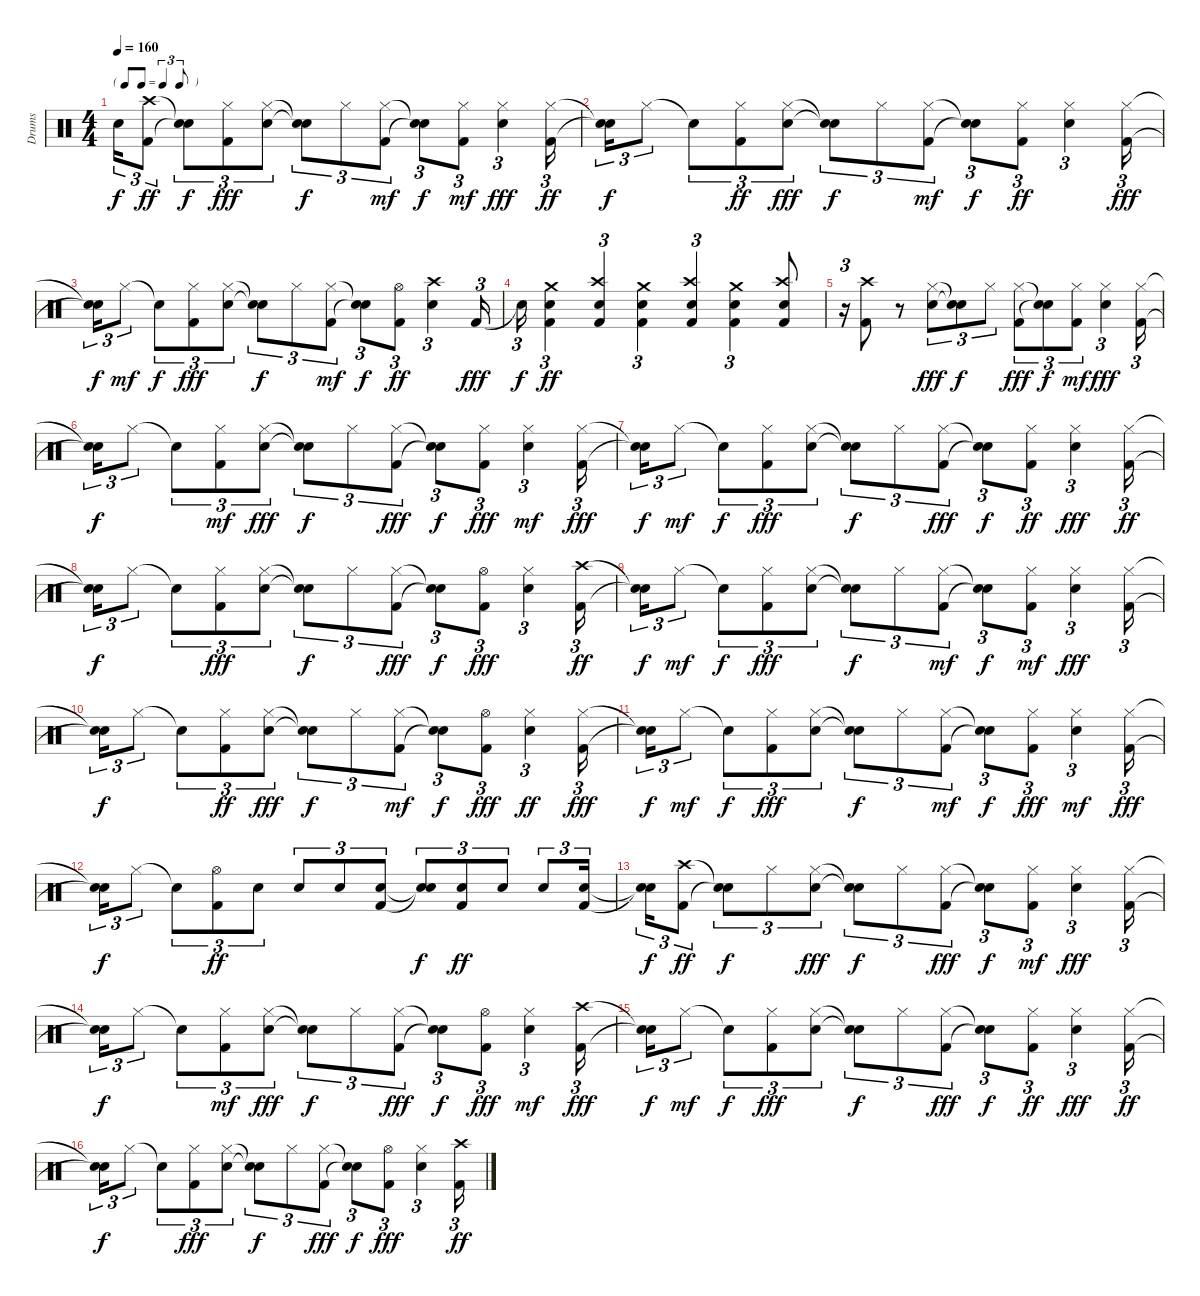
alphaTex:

\track ("Drums" "Drums") {instrument percussion}
\staff {score}
\articulation defaults
\ts (4 4)
\tf triplet8th
\tempo 160
\clef neutral
\ks c "Snare (hit)"{t}.16{tu (3 2) dy f}
("Kick (hit) 2" "Crash high (hit)").8{tu (3 2) dy ff} ("Snare (hit)"{t} "Snare (hit)"{t}).8{tu (3 2) dy f} ("Kick (hit) 2" "Hi-Hat (closed)").8{tu (3 2) dy fff} ("Electric Snare (hit)" "Hi-Hat (closed)").8{tu (3 2)} ("Snare (hit)"{t} "Snare (hit)"{t}).8{tu (3 2) dy f} "Hi-Hat (closed)".8{tu (3 2)} ("Kick (hit) 2" "Hi-Hat (closed)").8{tu (3 2) dy mf} ("Snare (hit)"{t} "Snare (hit)"{t}).8{tu (3 2) dy f} ("Kick (hit) 2" "Hi-Hat (closed)").8{tu (3 2) dy mf} ("Electric Snare (hit)" "Hi-Hat (closed)").4{tu (3 2) dy fff} ("Kick (hit) 2" "Hi-Hat (closed)").16{tu (3 2) dy ff} |
("Snare (hit)"{t} "Snare (hit)"{t}).16{tu (3 2) dy f} "Hi-Hat (closed)".8{tu (3 2)} "Snare (hit)"{t}.8{tu (3 2)} ("Kick (hit) 2" "Hi-Hat (closed)").8{tu (3 2) dy ff} ("Hi-Hat (closed)" "Electric Snare (hit)").8{tu (3 2) dy fff} ("Snare (hit)"{t} "Snare (hit)"{t}).8{tu (3 2) dy f} "Hi-Hat (closed)".8{tu (3 2)} ("Kick (hit) 2" "Hi-Hat (closed)").8{tu (3 2) dy mf} ("Snare (hit)"{t} "Snare (hit)"{t}).8{tu (3 2) dy f} ("Kick (hit) 2" "Hi-Hat (closed)").8{tu (3 2) dy ff} ("Electric Snare (hit)" "Hi-Hat (closed)").4{tu (3 2)} ("Kick (hit) 2" "Hi-Hat (closed)").16{tu (3 2) dy fff} |
("Snare (hit)"{t} "Snare (hit)"{t}).16{tu (3 2) dy f} "Hi-Hat (closed)".8{tu (3 2) dy mf} "Snare (hit)"{t}.8{tu (3 2) dy f} ("Kick (hit) 2" "Hi-Hat (closed)").8{tu (3 2) dy fff} ("Hi-Hat (closed)" "Electric Snare (hit)").8{tu (3 2)} ("Snare (hit)"{t} "Snare (hit)"{t}).8{tu (3 2) dy f} "Hi-Hat (closed)".8{tu (3 2)} ("Kick (hit) 2" "Hi-Hat (closed)").8{tu (3 2) dy mf} ("Snare (hit)"{t} "Snare (hit)"{t}).8{tu (3 2) dy f} ("Kick (hit) 2" "Hi-Hat (open)").8{tu (3 2) dy ff} ("Electric Snare (hit)" "Crash high (hit)").4{tu (3 2)} "Kick (hit) 2".16{tu (3 2) dy fff} |
"Snare (hit)"{t}.16{tu (3 2) dy f} ("Kick (hit) 2" "Crash medium (hit)" "Electric Snare (hit)").4{tu (3 2) dy ff} ("Kick (hit) 2" "Crash high (hit)" "Electric Snare (hit)").4{tu (3 2)} ("Kick (hit) 2" "Crash medium (hit)" "Electric Snare (hit)").4{tu (3 2)} ("Kick (hit) 2" "Crash high (hit)" "Electric Snare (hit)").4{tu (3 2)} ("Kick (hit) 2" "Crash medium (hit)" "Electric Snare (hit)").4{tu (3 2)} ("Kick (hit) 2" "Crash high (hit)" "Electric Snare (hit)").8 |
r.16{tu (3 2)} ("Kick (hit) 2" "Crash high (hit)").8 r.8 ("Hi-Hat (closed)" "Electric Snare (hit)").8{tu (3 2) dy fff} ("Snare (hit)"{t} "Snare (hit)"{t}).8{tu (3 2) dy f} "Hi-Hat (closed)".8{tu (3 2)} ("Kick (hit) 2" "Hi-Hat (closed)").8{tu (3 2) dy fff} ("Snare (hit)"{t} "Snare (hit)"{t}).8{tu (3 2) dy f} ("Kick (hit) 2" "Hi-Hat (closed)").8{tu (3 2) dy mf} ("Electric Snare (hit)" "Hi-Hat (closed)").4{tu (3 2) dy fff} ("Kick (hit) 2" "Hi-Hat (closed)").16{tu (3 2)} |
("Snare (hit)"{t} "Snare (hit)"{t}).16{tu (3 2) dy f} "Hi-Hat (closed)".8{tu (3 2)} "Snare (hit)"{t}.8{tu (3 2)} ("Kick (hit) 2" "Hi-Hat (closed)").8{tu (3 2) dy mf} ("Electric Snare (hit)" "Hi-Hat (closed)").8{tu (3 2) dy fff} ("Snare (hit)"{t} "Snare (hit)"{t}).8{tu (3 2) dy f} "Hi-Hat (closed)".8{tu (3 2)} ("Kick (hit) 2" "Hi-Hat (closed)").8{tu (3 2) dy fff} ("Snare (hit)"{t} "Snare (hit)"{t}).8{tu (3 2) dy f} ("Kick (hit) 2" "Hi-Hat (closed)").8{tu (3 2) dy fff} ("Electric Snare (hit)" "Hi-Hat (closed)").4{tu (3 2) dy mf} ("Kick (hit) 2" "Hi-Hat (closed)").16{tu (3 2) dy fff} |
("Snare (hit)"{t} "Snare (hit)"{t}).16{tu (3 2) dy f} "Hi-Hat (closed)".8{tu (3 2) dy mf} "Snare (hit)"{t}.8{tu (3 2) dy f} ("Kick (hit) 2" "Hi-Hat (closed)").8{tu (3 2) dy fff} ("Hi-Hat (closed)" "Electric Snare (hit)").8{tu (3 2)} ("Snare (hit)"{t} "Snare (hit)"{t}).8{tu (3 2) dy f} "Hi-Hat (closed)".8{tu (3 2)} ("Kick (hit) 2" "Hi-Hat (closed)").8{tu (3 2) dy fff} ("Snare (hit)"{t} "Snare (hit)"{t}).8{tu (3 2) dy f} ("Kick (hit) 2" "Hi-Hat (closed)").8{tu (3 2) dy ff} ("Hi-Hat (closed)" "Electric Snare (hit)").4{tu (3 2) dy fff} ("Kick (hit) 2" "Hi-Hat (closed)").16{tu (3 2) dy ff} |
("Snare (hit)"{t} "Snare (hit)"{t}).16{tu (3 2) dy f} "Hi-Hat (closed)".8{tu (3 2)} "Snare (hit)"{t}.8{tu (3 2)} ("Kick (hit) 2" "Hi-Hat (closed)").8{tu (3 2) dy fff} ("Hi-Hat (closed)" "Electric Snare (hit)").8{tu (3 2)} ("Snare (hit)"{t} "Snare (hit)"{t}).8{tu (3 2) dy f} "Hi-Hat (closed)".8{tu (3 2)} ("Kick (hit) 2" "Hi-Hat (closed)").8{tu (3 2) dy fff} ("Snare (hit)"{t} "Snare (hit)"{t}).8{tu (3 2) dy f} ("Kick (hit) 2" "Hi-Hat (open)").8{tu (3 2) dy fff} ("Electric Snare (hit)" "Hi-Hat (closed)").4{tu (3 2)} ("Kick (hit) 2" "Crash high (hit)").16{tu (3 2) dy ff} |
("Snare (hit)"{t} "Snare (hit)"{t}).16{tu (3 2) dy f} "Hi-Hat (closed)".8{tu (3 2) dy mf} "Snare (hit)"{t}.8{tu (3 2) dy f} ("Kick (hit) 2" "Hi-Hat (closed)").8{tu (3 2) dy fff} ("Electric Snare (hit)" "Hi-Hat (closed)").8{tu (3 2)} ("Snare (hit)"{t} "Snare (hit)"{t}).8{tu (3 2) dy f} "Hi-Hat (closed)".8{tu (3 2)} ("Kick (hit) 2" "Hi-Hat (closed)").8{tu (3 2) dy mf} ("Snare (hit)"{t} "Snare (hit)"{t}).8{tu (3 2) dy f} ("Kick (hit) 2" "Hi-Hat (closed)").8{tu (3 2) dy mf} ("Electric Snare (hit)" "Hi-Hat (closed)").4{tu (3 2) dy fff} ("Kick (hit) 2" "Hi-Hat (closed)").16{tu (3 2)} |
("Snare (hit)"{t} "Snare (hit)"{t}).16{tu (3 2) dy f} "Hi-Hat (closed)".8{tu (3 2)} "Snare (hit)"{t}.8{tu (3 2)} ("Kick (hit) 2" "Hi-Hat (closed)").8{tu (3 2) dy ff} ("Hi-Hat (closed)" "Electric Snare (hit)").8{tu (3 2) dy fff} ("Snare (hit)"{t} "Snare (hit)"{t}).8{tu (3 2) dy f} "Hi-Hat (closed)".8{tu (3 2)} ("Kick (hit) 2" "Hi-Hat (closed)").8{tu (3 2) dy mf} ("Snare (hit)"{t} "Snare (hit)"{t}).8{tu (3 2) dy f} ("Kick (hit) 2" "Hi-Hat (open)").8{tu (3 2) dy fff} ("Electric Snare (hit)" "Hi-Hat (closed)").4{tu (3 2) dy ff} ("Kick (hit) 2" "Hi-Hat (closed)").16{tu (3 2) dy fff} |
("Snare (hit)"{t} "Snare (hit)"{t}).16{tu (3 2) dy f} "Hi-Hat (closed)".8{tu (3 2) dy mf} "Snare (hit)"{t}.8{tu (3 2) dy f} ("Kick (hit) 2" "Hi-Hat (closed)").8{tu (3 2) dy fff} ("Hi-Hat (closed)" "Electric Snare (hit)").8{tu (3 2)} ("Snare (hit)"{t} "Snare (hit)"{t}).8{tu (3 2) dy f} "Hi-Hat (closed)".8{tu (3 2)} ("Kick (hit) 2" "Hi-Hat (closed)").8{tu (3 2) dy mf} ("Snare (hit)"{t} "Snare (hit)"{t}).8{tu (3 2) dy f} ("Kick (hit) 2" "Hi-Hat (closed)").8{tu (3 2) dy fff} ("Electric Snare (hit)" "Hi-Hat (closed)").4{tu (3 2) dy mf} ("Kick (hit) 2" "Hi-Hat (closed)").16{tu (3 2) dy fff} |
("Snare (hit)"{t} "Snare (hit)"{t}).16{tu (3 2) dy f} "Hi-Hat (closed)".8{tu (3 2)} "Snare (hit)"{t}.8{tu (3 2)} ("Kick (hit) 2" "Hi-Hat (open)").8{tu (3 2) dy ff} "Electric Snare (hit)".8{tu (3 2)} "Electric Snare (hit)".8{tu (3 2)} "Electric Snare (hit)".8{tu (3 2)} ("Kick (hit) 2" "Electric Snare (hit)").8{tu (3 2)} ("Snare (hit)"{t} "Snare (hit)"{t}).8{tu (3 2) dy f} ("Kick (hit) 2" "Electric Snare (hit)").8{tu (3 2) dy ff} "Electric Snare (hit)".8{tu (3 2)} "Electric Snare (hit)".8{tu (3 2)} ("Kick (hit) 2" "Electric Snare (hit)").16{tu (3 2)} |
("Snare (hit)"{t} "Snare (hit)"{t}).16{tu (3 2) dy f} ("Kick (hit) 2" "Crash high (hit)").8{tu (3 2) dy ff} ("Snare (hit)"{t} "Snare (hit)"{t}).8{tu (3 2) dy f} "Hi-Hat (closed)".8{tu (3 2)} ("Hi-Hat (closed)" "Electric Snare (hit)").8{tu (3 2) dy fff} ("Snare (hit)"{t} "Snare (hit)"{t}).8{tu (3 2) dy f} "Hi-Hat (closed)".8{tu (3 2)} ("Kick (hit) 2" "Hi-Hat (closed)").8{tu (3 2) dy fff} ("Snare (hit)"{t} "Snare (hit)"{t}).8{tu (3 2) dy f} ("Kick (hit) 2" "Hi-Hat (closed)").8{tu (3 2) dy mf} ("Electric Snare (hit)" "Hi-Hat (closed)").4{tu (3 2) dy fff} ("Kick (hit) 2" "Hi-Hat (closed)").16{tu (3 2)} |
("Snare (hit)"{t} "Snare (hit)"{t}).16{tu (3 2) dy f} "Hi-Hat (closed)".8{tu (3 2)} "Snare (hit)"{t}.8{tu (3 2)} ("Kick (hit) 2" "Hi-Hat (closed)").8{tu (3 2) dy mf} ("Electric Snare (hit)" "Hi-Hat (closed)").8{tu (3 2) dy fff} ("Snare (hit)"{t} "Snare (hit)"{t}).8{tu (3 2) dy f} "Hi-Hat (closed)".8{tu (3 2)} ("Kick (hit) 2" "Hi-Hat (closed)").8{tu (3 2) dy fff} ("Snare (hit)"{t} "Snare (hit)"{t}).8{tu (3 2) dy f} ("Kick (hit) 2" "Hi-Hat (open)").8{tu (3 2) dy fff} ("Electric Snare (hit)" "Hi-Hat (closed)").4{tu (3 2) dy mf} ("Kick (hit) 2" "Crash high (hit)").16{tu (3 2) dy fff} |
("Snare (hit)"{t} "Snare (hit)"{t}).16{tu (3 2) dy f} "Hi-Hat (closed)".8{tu (3 2) dy mf} "Snare (hit)"{t}.8{tu (3 2) dy f} ("Kick (hit) 2" "Hi-Hat (closed)").8{tu (3 2) dy fff} ("Hi-Hat (closed)" "Electric Snare (hit)").8{tu (3 2)} ("Snare (hit)"{t} "Snare (hit)"{t}).8{tu (3 2) dy f} "Hi-Hat (closed)".8{tu (3 2)} ("Kick (hit) 2" "Hi-Hat (closed)").8{tu (3 2) dy fff} ("Snare (hit)"{t} "Snare (hit)"{t}).8{tu (3 2) dy f} ("Kick (hit) 2" "Hi-Hat (closed)").8{tu (3 2) dy ff} ("Hi-Hat (closed)" "Electric Snare (hit)").4{tu (3 2) dy fff} ("Kick (hit) 2" "Hi-Hat (closed)").16{tu (3 2) dy ff} |
("Snare (hit)"{t} "Snare (hit)"{t}).16{tu (3 2) dy f} "Hi-Hat (closed)".8{tu (3 2)} "Snare (hit)"{t}.8{tu (3 2)} ("Kick (hit) 2" "Hi-Hat (closed)").8{tu (3 2) dy fff} ("Hi-Hat (closed)" "Electric Snare (hit)").8{tu (3 2)} ("Snare (hit)"{t} "Snare (hit)"{t}).8{tu (3 2) dy f} "Hi-Hat (closed)".8{tu (3 2)} ("Kick (hit) 2" "Hi-Hat (closed)").8{tu (3 2) dy fff} ("Snare (hit)"{t} "Snare (hit)"{t}).8{tu (3 2) dy f} ("Kick (hit) 2" "Hi-Hat (open)").8{tu (3 2) dy fff} ("Electric Snare (hit)" "Hi-Hat (closed)").4{tu (3 2)} ("Kick (hit) 2" "Crash high (hit)").16{tu (3 2) dy ff}
